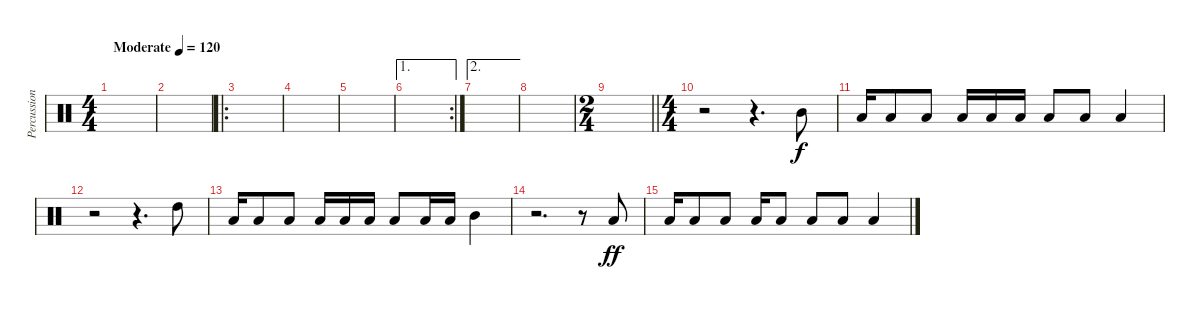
\track ("Percussion" "Percussion") {instrument percussion}
\staff {score}
\articulation defaults
\ts (4 4)
\tempo (120 "Moderate")
\clef neutral
\ks c
|
|
\ro
|
|
|
\ae 1
\rc 2
|
\ae 2
|
|
\ts (2 4)
\barLineRight lightlight
|
\ts (4 4)
\section ("" "")
r.2 r.4{d} "Mid Tom (hit)".8 |
"Low Tom (hit)".16 "Low Tom (hit)".8 "Low Tom (hit)".8 "Low Tom (hit)".16 "Low Tom (hit)".16 "Low Tom (hit)".16 "Low Floor Tom (hit)".8 "Low Floor Tom (hit)".8 "Low Floor Tom (hit)".4 |
r.2 r.4{d} "High Tom (hit)".8 |
"Low Tom (hit)".16 "Low Tom (hit)".8 "Low Floor Tom (hit)".8 "Low Tom (hit)".16 "Low Tom (hit)".16 "Low Tom (hit)".16 "Low Floor Tom (hit)".8 "Low Floor Tom (hit)".16 "Low Floor Tom (hit)".16 "Mid Tom (hit)".4 |
r.2{d} r.8 "Low Tom (hit)".8{dy ff} |
"Low Tom (hit)".16 "Low Tom (hit)".8 "Low Tom (hit)".8 "Low Tom (hit)".16 "Low Tom (hit)".8 "Low Tom (hit)".8 "Low Tom (hit)".8 "Low Tom (hit)".4
